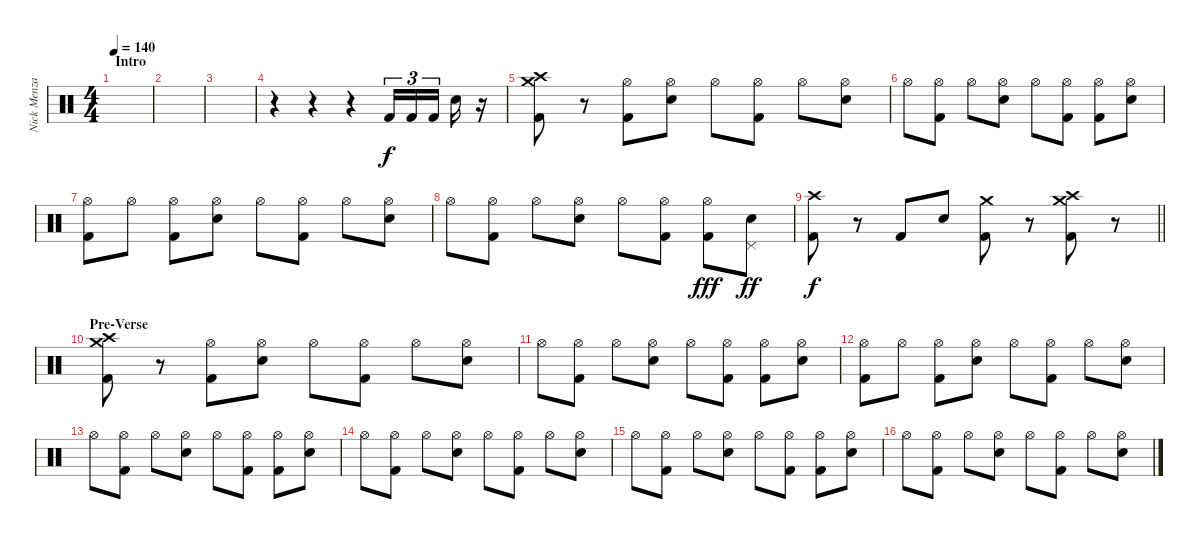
\track ("Nick Menza" "Nick Menza") {instrument percussion}
\staff {score}
\articulation defaults
\ts (4 4)
\section ("" "Intro")
\tempo 140
\clef neutral
\ks c
|
|
|
r.4 r.4 r.4 "Kick (hit) 2".16{tu (3 2)} "Kick (hit) 2".16{tu (3 2)} "Kick (hit) 2".16{tu (3 2) beam splitsecondary} "Snare (hit) 2".16 r.16 |
("Crash high (hit)" "Crash medium (hit)" "Kick (hit) 2").8 r.8 ("Hi-Hat (open)" "Kick (hit) 2").8 ("Hi-Hat (open)" "Snare (hit) 2").8 "Hi-Hat (open)".8 ("Hi-Hat (open)" "Kick (hit) 2").8 "Hi-Hat (open)".8 ("Hi-Hat (open)" "Snare (hit) 2").8 |
"Hi-Hat (open)".8 ("Hi-Hat (open)" "Kick (hit) 2").8 "Hi-Hat (open)".8 ("Hi-Hat (open)" "Snare (hit) 2").8 "Hi-Hat (open)".8 ("Hi-Hat (open)" "Kick (hit) 2").8 ("Hi-Hat (open)" "Kick (hit) 2").8 ("Hi-Hat (open)" "Snare (hit) 2").8 |
("Hi-Hat (open)" "Kick (hit) 2").8 "Hi-Hat (open)".8 ("Hi-Hat (open)" "Kick (hit) 2").8 ("Hi-Hat (open)" "Snare (hit) 2").8 "Hi-Hat (open)".8 ("Hi-Hat (open)" "Kick (hit) 2").8 "Hi-Hat (open)".8 ("Hi-Hat (open)" "Snare (hit) 2").8 |
"Hi-Hat (open)".8 ("Hi-Hat (open)" "Kick (hit) 2").8 "Hi-Hat (open)".8 ("Hi-Hat (open)" "Snare (hit) 2").8 "Hi-Hat (open)".8 ("Hi-Hat (open)" "Kick (hit) 2").8 ("Hi-Hat (open)" "Kick (hit) 2").8{dy fff} ("Pedal Hi-Hat (hit)" "Snare (hit) 2").8{dy ff} |
\barLineRight lightlight
("Crash high (hit)" "Kick (hit) 2").8{dy f} r.8 "Kick (hit) 2".8 "Snare (hit) 2".8 ("Crash medium (hit)" "Kick (hit) 2").8 r.8 ("Crash high (hit)" "Crash medium (hit)" "Kick (hit) 2").8 r.8 |
\section ("" "Pre-Verse")
("Crash high (hit)" "Crash medium (hit)" "Kick (hit) 2").8 r.8 ("Hi-Hat (open)" "Kick (hit) 2").8 ("Hi-Hat (open)" "Snare (hit) 2").8 "Hi-Hat (open)".8 ("Hi-Hat (open)" "Kick (hit) 2").8 "Hi-Hat (open)".8 ("Hi-Hat (open)" "Snare (hit) 2").8 |
"Hi-Hat (open)".8 ("Hi-Hat (open)" "Kick (hit) 2").8 "Hi-Hat (open)".8 ("Hi-Hat (open)" "Snare (hit) 2").8 "Hi-Hat (open)".8 ("Hi-Hat (open)" "Kick (hit) 2").8 ("Hi-Hat (open)" "Kick (hit) 2").8 ("Hi-Hat (open)" "Snare (hit) 2").8 |
("Hi-Hat (open)" "Kick (hit) 2").8 "Hi-Hat (open)".8 ("Hi-Hat (open)" "Kick (hit) 2").8 ("Hi-Hat (open)" "Snare (hit) 2").8 "Hi-Hat (open)".8 ("Hi-Hat (open)" "Kick (hit) 2").8 "Hi-Hat (open)".8 ("Hi-Hat (open)" "Snare (hit) 2").8 |
"Hi-Hat (open)".8 ("Hi-Hat (open)" "Kick (hit) 2").8 "Hi-Hat (open)".8 ("Hi-Hat (open)" "Snare (hit) 2").8 "Hi-Hat (open)".8 ("Hi-Hat (open)" "Kick (hit) 2").8 ("Hi-Hat (open)" "Kick (hit) 2").8 ("Hi-Hat (open)" "Snare (hit) 2").8 |
"Hi-Hat (open)".8 ("Hi-Hat (open)" "Kick (hit) 2").8 "Hi-Hat (open)".8 ("Hi-Hat (open)" "Snare (hit) 2").8 "Hi-Hat (open)".8 ("Hi-Hat (open)" "Kick (hit) 2").8 "Hi-Hat (open)".8 ("Hi-Hat (open)" "Snare (hit) 2").8 |
"Hi-Hat (open)".8 ("Hi-Hat (open)" "Kick (hit) 2").8 "Hi-Hat (open)".8 ("Hi-Hat (open)" "Snare (hit) 2").8 "Hi-Hat (open)".8 ("Hi-Hat (open)" "Kick (hit) 2").8 ("Hi-Hat (open)" "Kick (hit) 2").8 ("Hi-Hat (open)" "Snare (hit) 2").8 |
"Hi-Hat (open)".8 ("Hi-Hat (open)" "Kick (hit) 2").8 "Hi-Hat (open)".8 ("Hi-Hat (open)" "Snare (hit) 2").8 "Hi-Hat (open)".8 ("Hi-Hat (open)" "Kick (hit) 2").8 "Hi-Hat (open)".8 ("Hi-Hat (open)" "Snare (hit) 2").8
